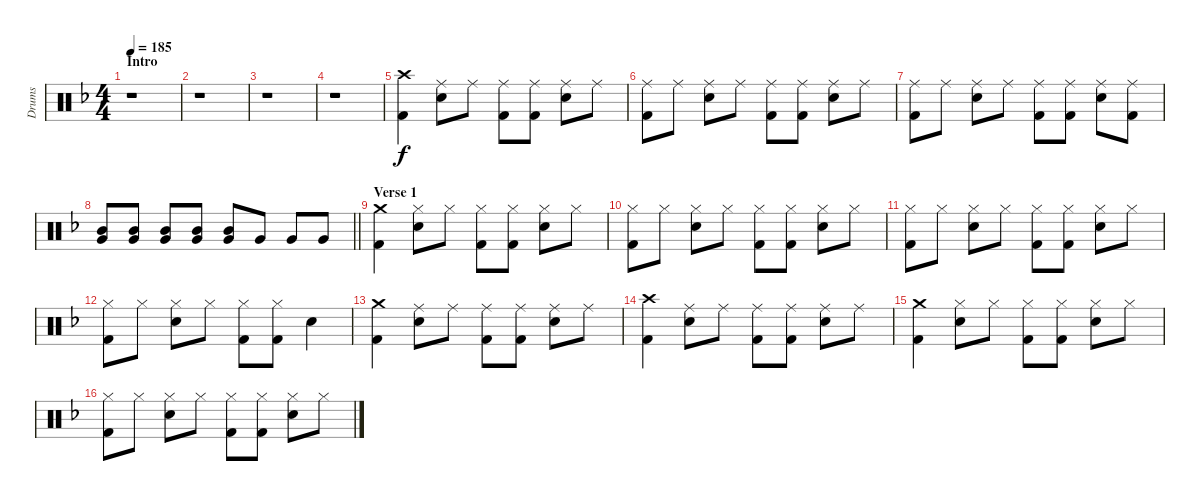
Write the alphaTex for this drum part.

\track ("Drums" "Drums") {instrument percussion}
\staff {score}
\articulation defaults
\ts (4 4)
\section ("" "Intro")
\tempo 185
\clef neutral
\ks f
r.1{dy f} |
r.1 |
r.1 |
r.1 |
("Crash high (hit)" "Kick (hit) 2").4 ("Ride (middle)" "Snare (hit) 2").8 "Ride (middle)".8 ("Ride (middle)" "Kick (hit) 2").8 ("Ride (middle)" "Kick (hit) 2").8 ("Ride (middle)" "Snare (hit) 2").8 "Ride (middle)".8 |
("Ride (middle)" "Kick (hit) 2").8 "Ride (middle)".8 ("Ride (middle)" "Snare (hit) 2").8 "Ride (middle)".8 ("Ride (middle)" "Kick (hit) 2").8 ("Ride (middle)" "Kick (hit) 2").8 ("Ride (middle)" "Snare (hit) 2").8 "Ride (middle)".8 |
("Ride (middle)" "Kick (hit) 2").8 "Ride (middle)".8 ("Ride (middle)" "Snare (hit) 2").8 "Ride (middle)".8 ("Ride (middle)" "Kick (hit) 2").8 ("Ride (middle)" "Kick (hit) 2").8 ("Ride (middle)" "Snare (hit) 2").8 ("Ride (middle)" "Kick (hit) 2").8 |
\barLineRight lightlight
("Mid Tom (hit)" "Very Low Tom (hit)").8 ("Mid Tom (hit)" "Very Low Tom (hit)").8 ("Mid Tom (hit)" "Very Low Tom (hit)").8 ("Mid Tom (hit)" "Very Low Tom (hit)").8 ("Mid Tom (hit)" "Very Low Tom (hit)").8 "Very Low Tom (hit)".8 "Very Low Tom (hit)".8 "Very Low Tom (hit)".8 |
\section ("" "Verse 1")
("Crash medium (hit)" "Kick (hit) 2").4 ("Hi-Hat (closed)" "Snare (hit) 2").8 "Hi-Hat (closed)".8 ("Hi-Hat (closed)" "Kick (hit) 2").8 ("Hi-Hat (closed)" "Kick (hit) 2").8 ("Hi-Hat (closed)" "Snare (hit) 2").8 "Hi-Hat (closed)".8 |
("Hi-Hat (closed)" "Kick (hit) 2").8 "Hi-Hat (closed)".8 ("Hi-Hat (closed)" "Snare (hit) 2").8 "Hi-Hat (closed)".8 ("Hi-Hat (closed)" "Kick (hit) 2").8 ("Hi-Hat (closed)" "Kick (hit) 2").8 ("Hi-Hat (closed)" "Snare (hit) 2").8 "Hi-Hat (closed)".8 |
("Hi-Hat (closed)" "Kick (hit) 2").8 "Hi-Hat (closed)".8 ("Hi-Hat (closed)" "Snare (hit) 2").8 "Hi-Hat (closed)".8 ("Hi-Hat (closed)" "Kick (hit) 2").8 ("Hi-Hat (closed)" "Kick (hit) 2").8 ("Hi-Hat (closed)" "Snare (hit) 2").8 "Hi-Hat (closed)".8 |
("Kick (hit) 2" "Hi-Hat (closed)").8 "Hi-Hat (closed)".8 ("Snare (hit) 2" "Hi-Hat (closed)").8 "Hi-Hat (closed)".8 ("Kick (hit) 2" "Hi-Hat (closed)").8 ("Kick (hit) 2" "Hi-Hat (closed)").8 "Snare (hit) 2".4 |
("Kick (hit) 2" "Crash medium (hit)").4 ("Snare (hit) 2" "Ride (middle)").8 "Ride (middle)".8 ("Kick (hit) 2" "Ride (middle)").8 ("Kick (hit) 2" "Ride (middle)").8 ("Snare (hit) 2" "Ride (middle)").8 "Ride (middle)".8 |
("Kick (hit) 2" "Crash high (hit)").4 ("Snare (hit) 2" "Ride (middle)").8 "Ride (middle)".8 ("Kick (hit) 2" "Ride (middle)").8 ("Kick (hit) 2" "Ride (middle)").8 ("Snare (hit) 2" "Ride (middle)").8 "Ride (middle)".8 |
("Crash medium (hit)" "Kick (hit) 2").4 ("Hi-Hat (closed)" "Snare (hit) 2").8 "Hi-Hat (closed)".8 ("Hi-Hat (closed)" "Kick (hit) 2").8 ("Hi-Hat (closed)" "Kick (hit) 2").8 ("Hi-Hat (closed)" "Snare (hit) 2").8 "Hi-Hat (closed)".8 |
("Hi-Hat (closed)" "Kick (hit) 2").8 "Hi-Hat (closed)".8 ("Hi-Hat (closed)" "Snare (hit) 2").8 "Hi-Hat (closed)".8 ("Hi-Hat (closed)" "Kick (hit) 2").8 ("Hi-Hat (closed)" "Kick (hit) 2").8 ("Hi-Hat (closed)" "Snare (hit) 2").8 "Hi-Hat (closed)".8
